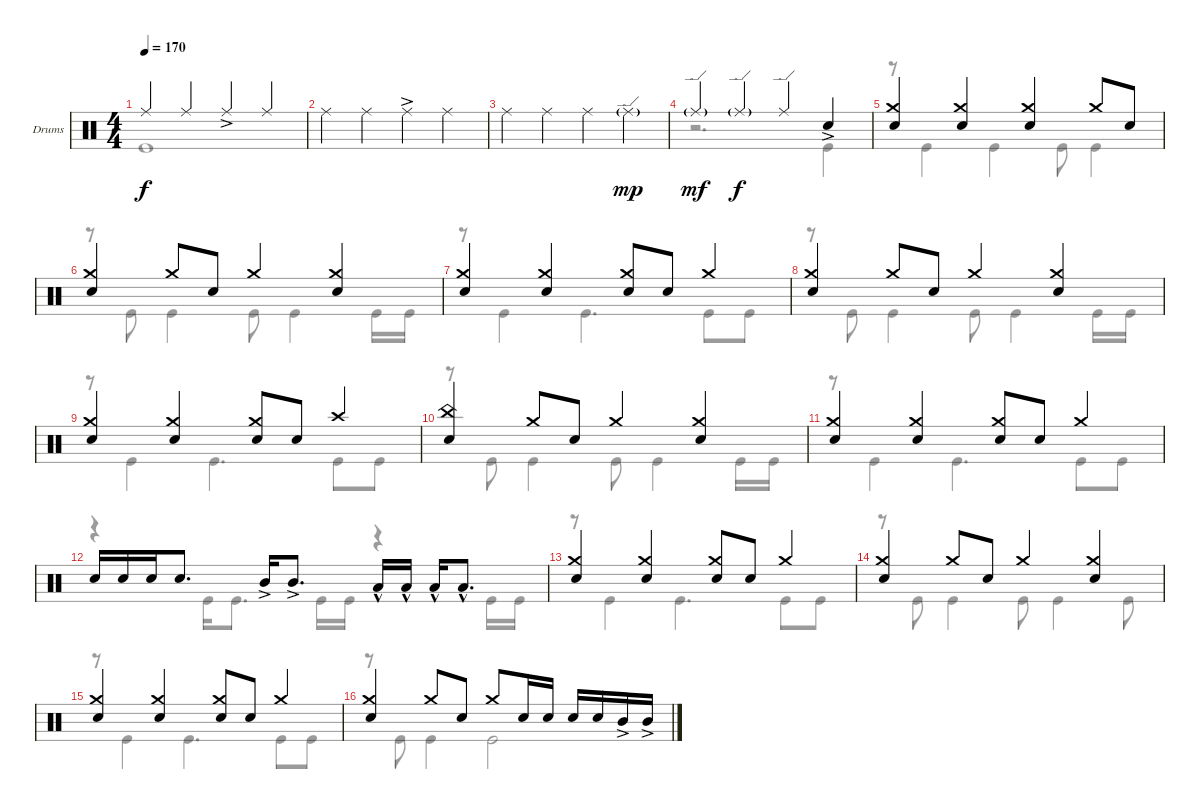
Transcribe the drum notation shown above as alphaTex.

\defaultSystemsLayout 4
\bracketExtendMode groupsimilarinstruments
\firstSystemTrackNameOrientation horizontal
\otherSystemsTrackNameOrientation horizontal
\track ("Drumkit" "Drums") {instrument percussion}
\staff {score}
\articulation defaults
\voice
\ts (4 4)
\tempo 170
\clef neutral
\scale
1.02648
\ks c "Ride (middle)".4{dy f} "Ride (middle)".4 "Ride (middle)"{ac}.4 "Ride (middle)".4
|
\scale
0.973518 "Ride (middle)".4 "Ride (middle)".4 "Ride (middle)"{ac}.4 "Ride (middle)".4 |
\scale
1.02648 "Ride (middle)".4 "Ride (middle)".4 "Ride (middle)".4 "Ride (edge)"{g}.4{dy mp} |
\scale
0.973518 "Ride (edge)"{g}.4{dy mf} "Ride (edge)"{g}.4{dy f} "Ride (edge)".4 "Snare (hit) 2"{ac}.4 |
("Snare (hit) 2" "Crash medium (hit)").4 ("Snare (hit) 2" "Crash medium (hit)").4 ("Snare (hit) 2" "Crash medium (hit)").4 "Crash medium (hit)".8 "Snare (hit) 2".8 |
("Snare (hit) 2" "Crash medium (hit)").4 "Crash medium (hit)".8 "Snare (hit) 2".8 "Crash medium (hit)".4 ("Snare (hit) 2" "Crash medium (hit)").4 |
("Snare (hit) 2" "Crash medium (hit)").4 ("Snare (hit) 2" "Crash medium (hit)").4 ("Snare (hit) 2" "Crash medium (hit)").8 "Snare (hit) 2".8 "Crash medium (hit)".4 |
("Snare (hit) 2" "Crash medium (hit)").4 "Crash medium (hit)".8 "Snare (hit) 2".8 "Crash medium (hit)".4 ("Snare (hit) 2" "Crash medium (hit)").4 |
("Snare (hit) 2" "Crash medium (hit)").4 ("Snare (hit) 2" "Crash medium (hit)").4 ("Snare (hit) 2" "Crash medium (hit)").8 "Snare (hit) 2".8 "Crash high (hit)".4 |
("Snare (hit) 2" "China (hit)").4 "Crash medium (hit)".8 "Snare (hit) 2".8 "Crash medium (hit)".4 ("Snare (hit) 2" "Crash medium (hit)").4 |
("Snare (hit) 2" "Crash medium (hit)").4 ("Snare (hit) 2" "Crash medium (hit)").4 ("Snare (hit) 2" "Crash medium (hit)").8 "Snare (hit) 2".8 "Crash medium (hit)".4 |
"Snare (hit) 2".16 "Snare (hit) 2".16 "Snare (hit) 2".16 "Snare (hit) 2".8{d} "Mid Tom (hit)"{ac}.16 "Mid Tom (hit)"{ac}.8{d} "Low Tom (hit)"{hac}.16 "Low Tom (hit)"{hac}.16 "Low Tom (hit)"{hac}.16 "Low Tom (hit)"{hac}.8{d} |
("Snare (hit) 2" "Crash medium (hit)").4 ("Snare (hit) 2" "Crash medium (hit)").4 ("Snare (hit) 2" "Crash medium (hit)").8 "Snare (hit) 2".8 "Crash medium (hit)".4 |
("Snare (hit) 2" "Crash medium (hit)").4 "Crash medium (hit)".8 "Snare (hit) 2".8 "Crash medium (hit)".4 ("Snare (hit) 2" "Crash medium (hit)").4 |
("Snare (hit) 2" "Crash medium (hit)").4 ("Snare (hit) 2" "Crash medium (hit)").4 ("Snare (hit) 2" "Crash medium (hit)").8 "Snare (hit) 2".8 "Crash medium (hit)".4 |
("Snare (hit) 2" "Crash medium (hit)").4 "Crash medium (hit)".8 "Snare (hit) 2".8 "Crash medium (hit)".8 "Snare (hit) 2".16 "Snare (hit) 2".16 "Snare (hit) 2".16 "Snare (hit) 2".16 "Mid Tom (hit)"{ac}.16 "Mid Tom (hit)"{ac}.16
\voice
\clef neutral
\ottava regular
\simile none
\scale
1.02648
\ks c "Kick (hit)".1{dy f}
|
\scale
0.973518 |
\scale
1.02648 |
\scale
0.973518 r.2{d} "Kick (hit)".4 |
r.8 "Kick (hit)".4 "Kick (hit)".4 "Kick (hit)".8 "Kick (hit)".4 |
r.8 "Kick (hit)".8 "Kick (hit)".4 "Kick (hit)".8 "Kick (hit)".4 "Kick (hit)".16 "Kick (hit)".16 |
r.8 "Kick (hit)".4 "Kick (hit)".4{d} "Kick (hit)".8 "Kick (hit)".8 |
r.8 "Kick (hit)".8 "Kick (hit)".4 "Kick (hit)".8 "Kick (hit)".4 "Kick (hit)".16 "Kick (hit)".16 |
r.8 "Kick (hit)".4 "Kick (hit)".4{d} "Kick (hit)".8 "Kick (hit)".8 |
r.8 "Kick (hit)".8 "Kick (hit)".4 "Kick (hit)".8 "Kick (hit)".4 "Kick (hit)".16 "Kick (hit)".16 |
r.8 "Kick (hit)".4 "Kick (hit)".4{d} "Kick (hit)".8 "Kick (hit)".8 |
r.4 "Kick (hit)".16 "Kick (hit)".8{d} "Kick (hit)".16 "Kick (hit)".16 r.4 "Kick (hit)".16 "Kick (hit)".16 |
r.8 "Kick (hit)".4 "Kick (hit)".4{d} "Kick (hit)".8 "Kick (hit)".8 |
r.8 "Kick (hit)".8 "Kick (hit)".4 "Kick (hit)".8 "Kick (hit)".4 "Kick (hit)".8 |
r.8 "Kick (hit)".4 "Kick (hit)".4{d} "Kick (hit)".8 "Kick (hit)".8 |
r.8 "Kick (hit)".8 "Kick (hit)".4 "Kick (hit)".2
